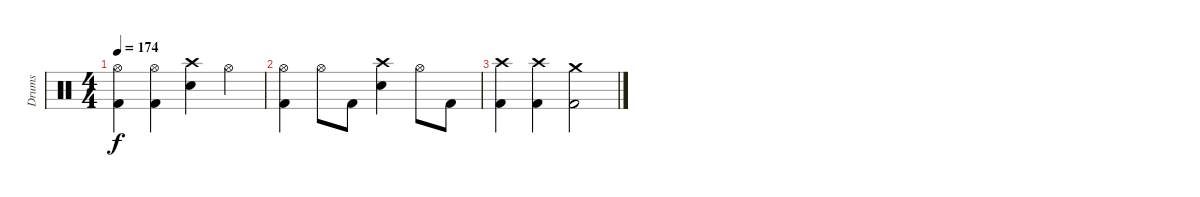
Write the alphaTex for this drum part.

\track ("Drums" "Drums") {instrument percussion}
\staff {score}
\articulation defaults
\ts (4 4)
\tempo 174
\clef neutral
\ks c
("Hi-Hat (open)" "Kick (hit) 2").4{dy f} ("Hi-Hat (open)" "Kick (hit) 2").4 ("Crash high (hit)" "Snare (hit) 2").4 "Hi-Hat (open)".4 |
("Hi-Hat (open)" "Kick (hit) 2").4 "Hi-Hat (open)".8 "Kick (hit) 2".8 ("Crash high (hit)" "Snare (hit) 2").4 "Hi-Hat (open)".8 "Kick (hit) 2".8 |
("Crash high (hit)" "Kick (hit) 2").4 ("Crash high (hit)" "Kick (hit) 2").4 ("Crash medium (hit)" "Kick (hit) 2").2
